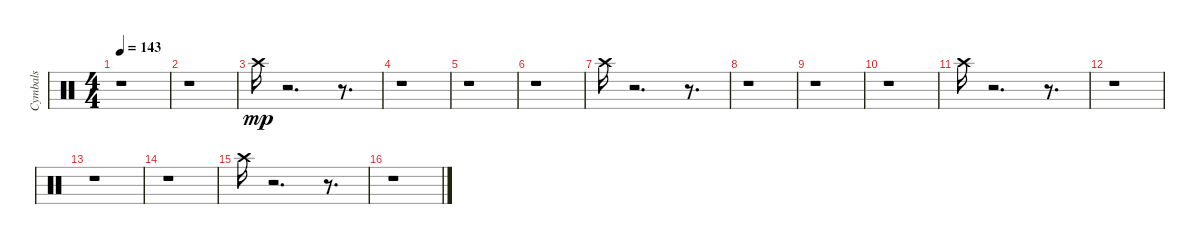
\track ("Cymbals  " "Cymbals  ") {instrument percussion}
\staff {score}
\articulation defaults
\ts (4 4)
\tempo 143
\clef neutral
\ks c
r.1{dy mp} |
r.1 |
"Crash high (hit)".16 r.2{d} r.8{d} |
r.1 |
r.1 |
r.1 |
"Crash high (hit)".16 r.2{d} r.8{d} |
r.1 |
r.1 |
r.1 |
"Crash high (hit)".16 r.2{d} r.8{d} |
r.1 |
r.1 |
r.1 |
"Crash high (hit)".16 r.2{d} r.8{d} |
r.1
